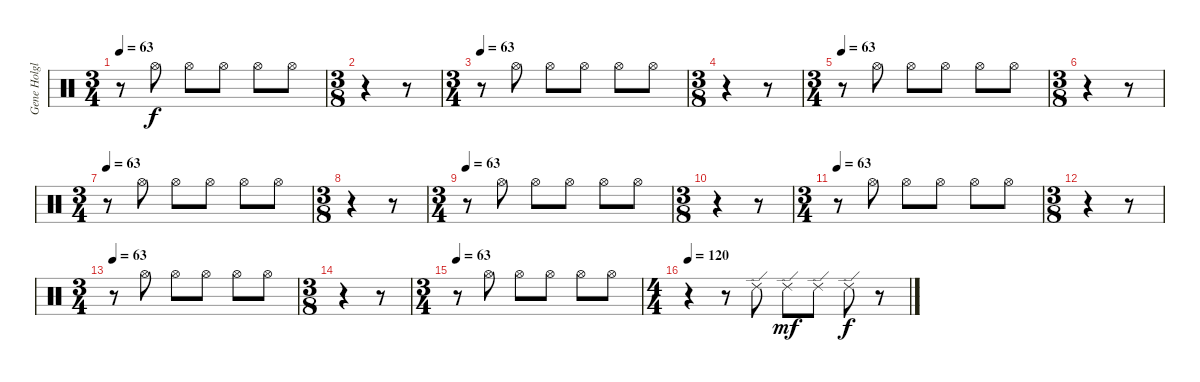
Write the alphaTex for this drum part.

\track ("Gene Holglan" "Gene Holgl") {instrument percussion}
\staff {score}
\articulation defaults
\ts (3 4)
\tempo 63
\clef neutral
\ks c
r.8{dy f} "Hi-Hat (open)".8 "Hi-Hat (open)".8 "Hi-Hat (open)".8 "Hi-Hat (open)".8 "Hi-Hat (open)".8 |
\ts (3 8)
r.4 r.8 |
\ts (3 4)
\tempo 63
r.8 "Hi-Hat (open)".8 "Hi-Hat (open)".8 "Hi-Hat (open)".8 "Hi-Hat (open)".8 "Hi-Hat (open)".8 |
\ts (3 8)
r.4 r.8 |
\ts (3 4)
\tempo 63
r.8 "Hi-Hat (open)".8 "Hi-Hat (open)".8 "Hi-Hat (open)".8 "Hi-Hat (open)".8 "Hi-Hat (open)".8 |
\ts (3 8)
r.4 r.8 |
\ts (3 4)
\tempo 63
r.8 "Hi-Hat (open)".8 "Hi-Hat (open)".8 "Hi-Hat (open)".8 "Hi-Hat (open)".8 "Hi-Hat (open)".8 |
\ts (3 8)
r.4 r.8 |
\ts (3 4)
\tempo 63
r.8 "Hi-Hat (open)".8 "Hi-Hat (open)".8 "Hi-Hat (open)".8 "Hi-Hat (open)".8 "Hi-Hat (open)".8 |
\ts (3 8)
r.4 r.8 |
\ts (3 4)
\tempo 63
r.8 "Hi-Hat (open)".8 "Hi-Hat (open)".8 "Hi-Hat (open)".8 "Hi-Hat (open)".8 "Hi-Hat (open)".8 |
\ts (3 8)
r.4 r.8 |
\ts (3 4)
\tempo 63
r.8 "Hi-Hat (open)".8 "Hi-Hat (open)".8 "Hi-Hat (open)".8 "Hi-Hat (open)".8 "Hi-Hat (open)".8 |
\ts (3 8)
r.4 r.8 |
\ts (3 4)
\tempo 63
r.8 "Hi-Hat (open)".8 "Hi-Hat (open)".8 "Hi-Hat (open)".8 "Hi-Hat (open)".8 "Hi-Hat (open)".8 |
\ts (4 4)
\tempo 120
r.4 r.8 "Ride (edge) 2".8 "Ride (edge) 2".8{dy mf} "Ride (edge) 2".8 "Ride (edge) 2".8{dy f} r.8
